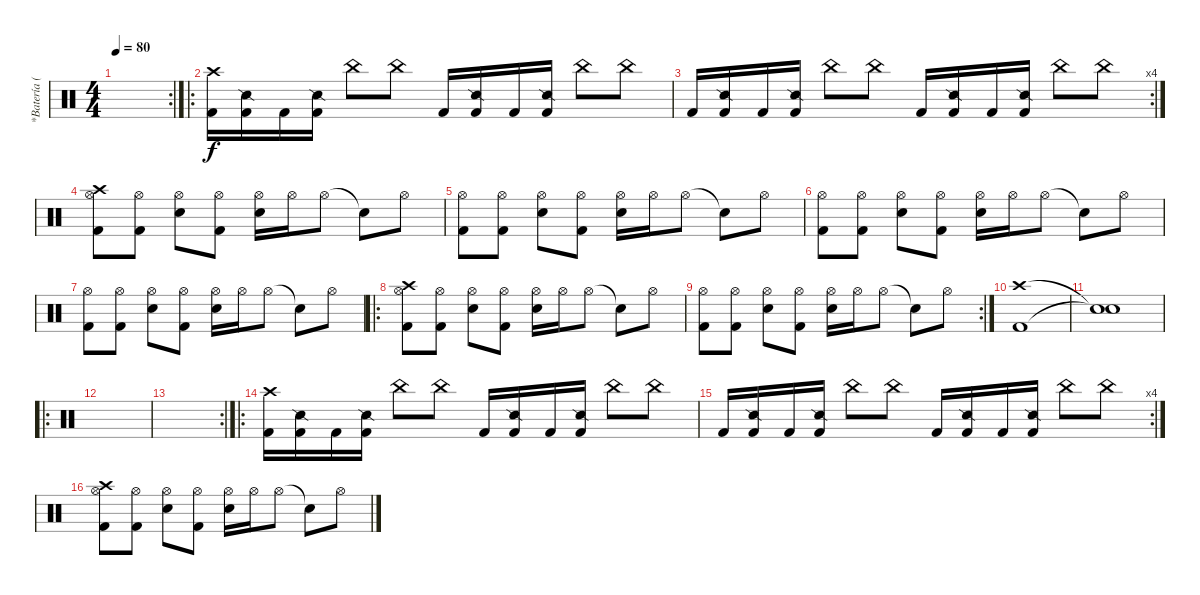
\track ("*Batería (Toño)" "*Batería (") {instrument percussion}
\staff {score}
\articulation defaults
\rc 2
\ts (4 4)
\tempo 80
\clef neutral
\ks c
|
\ro
("Crash high (hit)" "Kick (hit) 2").16 ("Snare (side stick) 2" "Kick (hit) 2").16 "Kick (hit) 2".16 ("Snare (side stick) 2" "Kick (hit) 2").16 "China (hit)".8 "China (hit)".8 "Kick (hit) 2".16 ("Snare (side stick) 2" "Kick (hit) 2").16 "Kick (hit) 2".16 ("Snare (side stick) 2" "Kick (hit) 2").16 "China (hit)".8 "China (hit)".8 |
\rc 4 "Kick (hit) 2".16
("Snare (side stick) 2" "Kick (hit) 2").16 "Kick (hit) 2".16 ("Snare (side stick) 2" "Kick (hit) 2").16 "China (hit)".8 "China (hit)".8 "Kick (hit) 2".16 ("Snare (side stick) 2" "Kick (hit) 2").16 "Kick (hit) 2".16 ("Snare (side stick) 2" "Kick (hit) 2").16 "China (hit)".8 "China (hit)".8 |
("Crash high (hit)" "Hi-Hat (open)" "Kick (hit) 2").8 ("Hi-Hat (open)" "Kick (hit) 2").8 ("Hi-Hat (open)" "Electric Snare (hit)").8 ("Hi-Hat (open)" "Kick (hit) 2").8 ("Hi-Hat (open)" "Electric Snare (hit)").16 "Hi-Hat (open)".16 "Hi-Hat (open)".8 "Snare (hit)"{t}.8 "Hi-Hat (open)".8 |
("Hi-Hat (open)" "Kick (hit) 2").8 ("Hi-Hat (open)" "Kick (hit) 2").8 ("Hi-Hat (open)" "Electric Snare (hit)").8 ("Hi-Hat (open)" "Kick (hit) 2").8 ("Hi-Hat (open)" "Electric Snare (hit)").16 "Hi-Hat (open)".16 "Hi-Hat (open)".8 "Snare (hit)"{t}.8 "Hi-Hat (open)".8 |
("Hi-Hat (open)" "Kick (hit) 2").8 ("Hi-Hat (open)" "Kick (hit) 2").8 ("Hi-Hat (open)" "Electric Snare (hit)").8 ("Hi-Hat (open)" "Kick (hit) 2").8 ("Hi-Hat (open)" "Electric Snare (hit)").16 "Hi-Hat (open)".16 "Hi-Hat (open)".8 "Snare (hit)"{t}.8 "Hi-Hat (open)".8 |
("Hi-Hat (open)" "Kick (hit) 2").8 ("Hi-Hat (open)" "Kick (hit) 2").8 ("Hi-Hat (open)" "Electric Snare (hit)").8 ("Hi-Hat (open)" "Kick (hit) 2").8 ("Hi-Hat (open)" "Electric Snare (hit)").16 "Hi-Hat (open)".16 "Hi-Hat (open)".8 "Snare (hit)"{t}.8 "Hi-Hat (open)".8 |
\ro
("Crash high (hit)" "Hi-Hat (open)" "Kick (hit) 2").8 ("Hi-Hat (open)" "Kick (hit) 2").8 ("Hi-Hat (open)" "Electric Snare (hit)").8 ("Hi-Hat (open)" "Kick (hit) 2").8 ("Hi-Hat (open)" "Electric Snare (hit)").16 "Hi-Hat (open)".16 "Hi-Hat (open)".8 "Snare (hit)"{t}.8 "Hi-Hat (open)".8 |
\rc 2
("Hi-Hat (open)" "Kick (hit) 2").8 ("Hi-Hat (open)" "Kick (hit) 2").8 ("Hi-Hat (open)" "Electric Snare (hit)").8 ("Hi-Hat (open)" "Kick (hit) 2").8 ("Hi-Hat (open)" "Electric Snare (hit)").16 "Hi-Hat (open)".16 "Hi-Hat (open)".8 "Snare (hit)"{t}.8 "Hi-Hat (open)".8 |
("Crash high (hit)" "Kick (hit) 2").1 |
("Snare (hit)"{t} "Snare (hit)"{t}).1 |
\ro
|
\rc 2
|
\ro
("Crash high (hit)" "Kick (hit) 2").16 ("Snare (side stick) 2" "Kick (hit) 2").16 "Kick (hit) 2".16 ("Snare (side stick) 2" "Kick (hit) 2").16 "China (hit)".8 "China (hit)".8 "Kick (hit) 2".16 ("Snare (side stick) 2" "Kick (hit) 2").16 "Kick (hit) 2".16 ("Snare (side stick) 2" "Kick (hit) 2").16 "China (hit)".8 "China (hit)".8 |
\rc 4 "Kick (hit) 2".16
("Snare (side stick) 2" "Kick (hit) 2").16 "Kick (hit) 2".16 ("Snare (side stick) 2" "Kick (hit) 2").16 "China (hit)".8 "China (hit)".8 "Kick (hit) 2".16 ("Snare (side stick) 2" "Kick (hit) 2").16 "Kick (hit) 2".16 ("Snare (side stick) 2" "Kick (hit) 2").16 "China (hit)".8 "China (hit)".8 |
("Crash high (hit)" "Hi-Hat (open)" "Kick (hit) 2").8 ("Hi-Hat (open)" "Kick (hit) 2").8 ("Hi-Hat (open)" "Electric Snare (hit)").8 ("Hi-Hat (open)" "Kick (hit) 2").8 ("Hi-Hat (open)" "Electric Snare (hit)").16 "Hi-Hat (open)".16 "Hi-Hat (open)".8 "Snare (hit)"{t}.8 "Hi-Hat (open)".8
